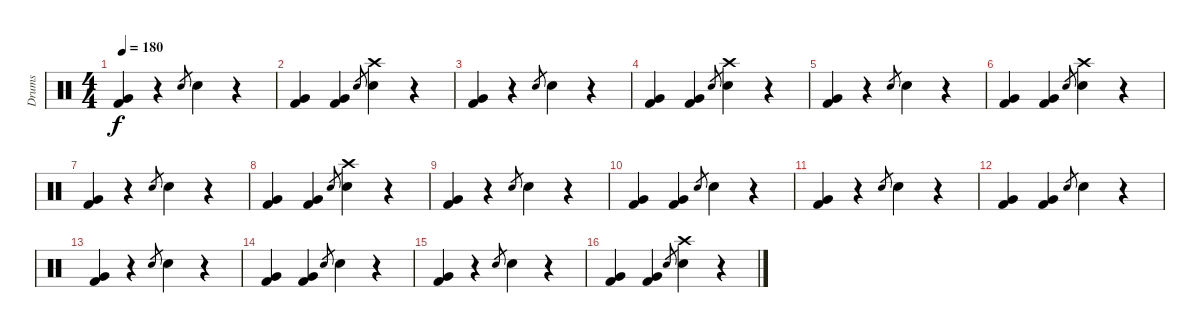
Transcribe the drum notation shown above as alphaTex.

\track ("Drums" "Drums") {instrument percussion}
\staff {score}
\articulation defaults
\ts (4 4)
\tempo 180
\clef neutral
\ks c
("Very Low Tom (hit)" "Kick (hit) 2").4{dy f} r.4 "Electric Snare (hit)".8{gr} "Electric Snare (hit)".4 r.4 |
("Very Low Tom (hit)" "Kick (hit) 2").4 ("Very Low Tom (hit)" "Kick (hit) 2").4 "Electric Snare (hit)".8{gr} ("Crash high (hit)" "Electric Snare (hit)").4 r.4 |
("Very Low Tom (hit)" "Kick (hit) 2").4 r.4 "Electric Snare (hit)".8{gr} "Electric Snare (hit)".4 r.4 |
("Very Low Tom (hit)" "Kick (hit) 2").4 ("Very Low Tom (hit)" "Kick (hit) 2").4 "Electric Snare (hit)".8{gr} ("Crash high (hit)" "Electric Snare (hit)").4 r.4 |
("Very Low Tom (hit)" "Kick (hit) 2").4 r.4 "Electric Snare (hit)".8{gr} "Electric Snare (hit)".4 r.4 |
("Very Low Tom (hit)" "Kick (hit) 2").4 ("Very Low Tom (hit)" "Kick (hit) 2").4 "Electric Snare (hit)".8{gr} ("Crash high (hit)" "Electric Snare (hit)").4 r.4 |
("Very Low Tom (hit)" "Kick (hit) 2").4 r.4 "Electric Snare (hit)".8{gr} "Electric Snare (hit)".4 r.4 |
("Very Low Tom (hit)" "Kick (hit) 2").4 ("Very Low Tom (hit)" "Kick (hit) 2").4 "Electric Snare (hit)".8{gr} ("Crash high (hit)" "Electric Snare (hit)").4 r.4 |
("Very Low Tom (hit)" "Kick (hit) 2").4 r.4 "Electric Snare (hit)".8{gr} "Electric Snare (hit)".4 r.4 |
("Very Low Tom (hit)" "Kick (hit) 2").4 ("Very Low Tom (hit)" "Kick (hit) 2").4 "Electric Snare (hit)".8{gr} "Electric Snare (hit)".4 r.4 |
("Very Low Tom (hit)" "Kick (hit) 2").4 r.4 "Electric Snare (hit)".8{gr} "Electric Snare (hit)".4 r.4 |
("Very Low Tom (hit)" "Kick (hit) 2").4 ("Very Low Tom (hit)" "Kick (hit) 2").4 "Electric Snare (hit)".8{gr} "Electric Snare (hit)".4 r.4 |
("Very Low Tom (hit)" "Kick (hit) 2").4 r.4 "Electric Snare (hit)".8{gr} "Electric Snare (hit)".4 r.4 |
("Very Low Tom (hit)" "Kick (hit) 2").4 ("Very Low Tom (hit)" "Kick (hit) 2").4 "Electric Snare (hit)".8{gr} "Electric Snare (hit)".4 r.4 |
("Very Low Tom (hit)" "Kick (hit) 2").4 r.4 "Electric Snare (hit)".8{gr} "Electric Snare (hit)".4 r.4 |
("Very Low Tom (hit)" "Kick (hit) 2").4 ("Very Low Tom (hit)" "Kick (hit) 2").4 "Electric Snare (hit)".8{gr} ("Crash high (hit)" "Electric Snare (hit)").4 r.4
